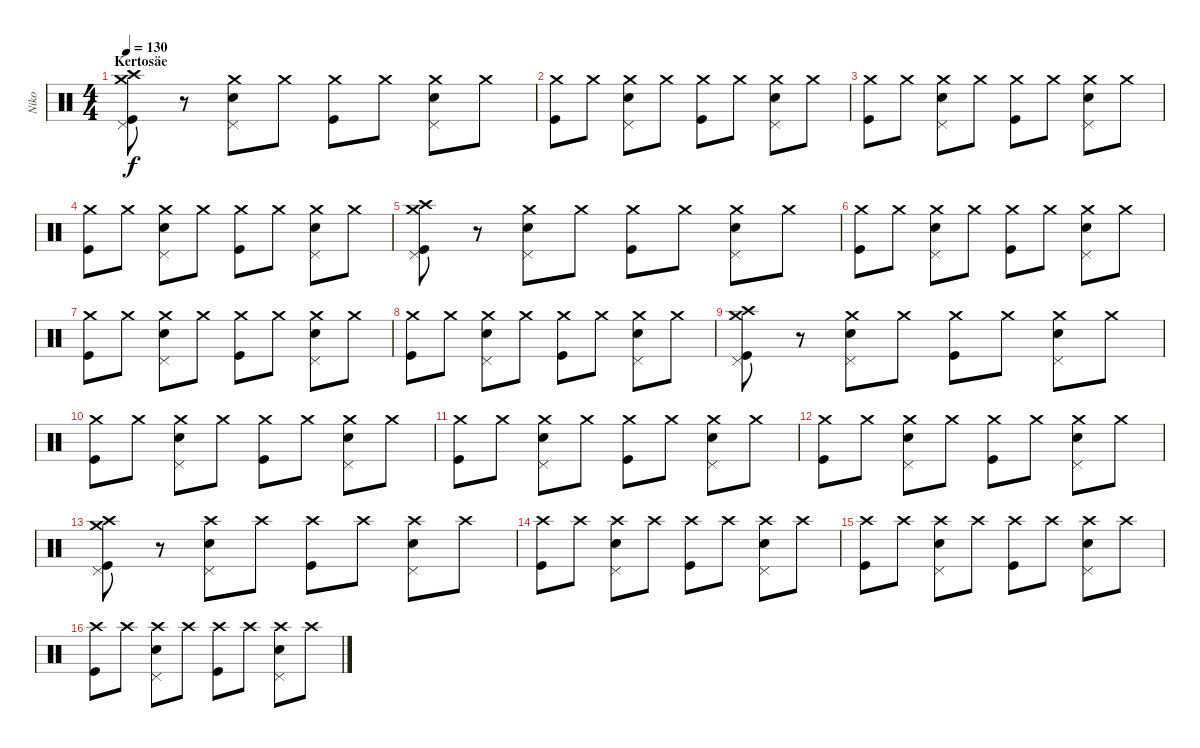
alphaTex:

\track ("Niko" "Niko") {instrument percussion}
\staff {score}
\articulation defaults
\ts (4 4)
\section ("" "Kertosäe")
\tempo 130
\clef neutral
\ks c
("Kick (hit)" "Crash medium (hit)" "Pedal Hi-Hat (hit)" "Crash high (hit)").8{dy f} r.8 ("Snare (hit) 2" "Crash medium (hit)" "Pedal Hi-Hat (hit)").8 "Crash medium (hit)".8 ("Kick (hit)" "Crash medium (hit)").8 "Crash medium (hit)".8 ("Snare (hit) 2" "Crash medium (hit)" "Pedal Hi-Hat (hit)").8 "Crash medium (hit)".8 |
("Kick (hit)" "Crash medium (hit)").8 "Crash medium (hit)".8 ("Snare (hit) 2" "Crash medium (hit)" "Pedal Hi-Hat (hit)").8 "Crash medium (hit)".8 ("Kick (hit)" "Crash medium (hit)").8 "Crash medium (hit)".8 ("Snare (hit) 2" "Crash medium (hit)" "Pedal Hi-Hat (hit)").8 "Crash medium (hit)".8 |
("Kick (hit)" "Crash medium (hit)").8 "Crash medium (hit)".8 ("Snare (hit) 2" "Crash medium (hit)" "Pedal Hi-Hat (hit)").8 "Crash medium (hit)".8 ("Kick (hit)" "Crash medium (hit)").8 "Crash medium (hit)".8 ("Snare (hit) 2" "Crash medium (hit)" "Pedal Hi-Hat (hit)").8 "Crash medium (hit)".8 |
("Kick (hit)" "Crash medium (hit)").8 "Crash medium (hit)".8 ("Snare (hit) 2" "Crash medium (hit)" "Pedal Hi-Hat (hit)").8 "Crash medium (hit)".8 ("Kick (hit)" "Crash medium (hit)").8 "Crash medium (hit)".8 ("Snare (hit) 2" "Crash medium (hit)" "Pedal Hi-Hat (hit)").8 "Crash medium (hit)".8 |
("Kick (hit)" "Crash medium (hit)" "Pedal Hi-Hat (hit)" "Crash high (hit)").8 r.8 ("Snare (hit) 2" "Crash medium (hit)" "Pedal Hi-Hat (hit)").8 "Crash medium (hit)".8 ("Kick (hit)" "Crash medium (hit)").8 "Crash medium (hit)".8 ("Snare (hit) 2" "Crash medium (hit)" "Pedal Hi-Hat (hit)").8 "Crash medium (hit)".8 |
("Kick (hit)" "Crash medium (hit)").8 "Crash medium (hit)".8 ("Snare (hit) 2" "Crash medium (hit)" "Pedal Hi-Hat (hit)").8 "Crash medium (hit)".8 ("Kick (hit)" "Crash medium (hit)").8 "Crash medium (hit)".8 ("Snare (hit) 2" "Crash medium (hit)" "Pedal Hi-Hat (hit)").8 "Crash medium (hit)".8 |
("Kick (hit)" "Crash medium (hit)").8 "Crash medium (hit)".8 ("Snare (hit) 2" "Crash medium (hit)" "Pedal Hi-Hat (hit)").8 "Crash medium (hit)".8 ("Kick (hit)" "Crash medium (hit)").8 "Crash medium (hit)".8 ("Snare (hit) 2" "Crash medium (hit)" "Pedal Hi-Hat (hit)").8 "Crash medium (hit)".8 |
("Kick (hit)" "Crash medium (hit)").8 "Crash medium (hit)".8 ("Snare (hit) 2" "Crash medium (hit)" "Pedal Hi-Hat (hit)").8 "Crash medium (hit)".8 ("Kick (hit)" "Crash medium (hit)").8 "Crash medium (hit)".8 ("Snare (hit) 2" "Crash medium (hit)" "Pedal Hi-Hat (hit)").8 "Crash medium (hit)".8 |
("Kick (hit)" "Crash medium (hit)" "Pedal Hi-Hat (hit)" "Crash high (hit)").8 r.8 ("Snare (hit) 2" "Crash medium (hit)" "Pedal Hi-Hat (hit)").8 "Crash medium (hit)".8 ("Kick (hit)" "Crash medium (hit)").8 "Crash medium (hit)".8 ("Snare (hit) 2" "Crash medium (hit)" "Pedal Hi-Hat (hit)").8 "Crash medium (hit)".8 |
("Kick (hit)" "Crash medium (hit)").8 "Crash medium (hit)".8 ("Snare (hit) 2" "Crash medium (hit)" "Pedal Hi-Hat (hit)").8 "Crash medium (hit)".8 ("Kick (hit)" "Crash medium (hit)").8 "Crash medium (hit)".8 ("Snare (hit) 2" "Crash medium (hit)" "Pedal Hi-Hat (hit)").8 "Crash medium (hit)".8 |
("Kick (hit)" "Crash medium (hit)").8 "Crash medium (hit)".8 ("Snare (hit) 2" "Crash medium (hit)" "Pedal Hi-Hat (hit)").8 "Crash medium (hit)".8 ("Kick (hit)" "Crash medium (hit)").8 "Crash medium (hit)".8 ("Snare (hit) 2" "Crash medium (hit)" "Pedal Hi-Hat (hit)").8 "Crash medium (hit)".8 |
("Kick (hit)" "Crash medium (hit)").8 "Crash medium (hit)".8 ("Snare (hit) 2" "Crash medium (hit)" "Pedal Hi-Hat (hit)").8 "Crash medium (hit)".8 ("Kick (hit)" "Crash medium (hit)").8 "Crash medium (hit)".8 ("Snare (hit) 2" "Crash medium (hit)" "Pedal Hi-Hat (hit)").8 "Crash medium (hit)".8 |
("Kick (hit)" "Crash medium (hit)" "Pedal Hi-Hat (hit)" "Crash high (hit)").8 r.8 ("Snare (hit) 2" "Crash high (hit)" "Pedal Hi-Hat (hit)").8 "Crash high (hit)".8 ("Kick (hit)" "Crash high (hit)").8 "Crash high (hit)".8 ("Snare (hit) 2" "Crash high (hit)" "Pedal Hi-Hat (hit)").8 "Crash high (hit)".8 |
("Kick (hit)" "Crash high (hit)").8 "Crash high (hit)".8 ("Snare (hit) 2" "Crash high (hit)" "Pedal Hi-Hat (hit)").8 "Crash high (hit)".8 ("Kick (hit)" "Crash high (hit)").8 "Crash high (hit)".8 ("Snare (hit) 2" "Crash high (hit)" "Pedal Hi-Hat (hit)").8 "Crash high (hit)".8 |
("Kick (hit)" "Crash high (hit)").8 "Crash high (hit)".8 ("Snare (hit) 2" "Crash high (hit)" "Pedal Hi-Hat (hit)").8 "Crash high (hit)".8 ("Kick (hit)" "Crash high (hit)").8 "Crash high (hit)".8 ("Snare (hit) 2" "Crash high (hit)" "Pedal Hi-Hat (hit)").8 "Crash high (hit)".8 |
("Kick (hit)" "Crash high (hit)").8 "Crash high (hit)".8 ("Snare (hit) 2" "Crash high (hit)" "Pedal Hi-Hat (hit)").8 "Crash high (hit)".8 ("Kick (hit)" "Crash high (hit)").8 "Crash high (hit)".8 ("Snare (hit) 2" "Crash high (hit)" "Pedal Hi-Hat (hit)").8 "Crash high (hit)".8
